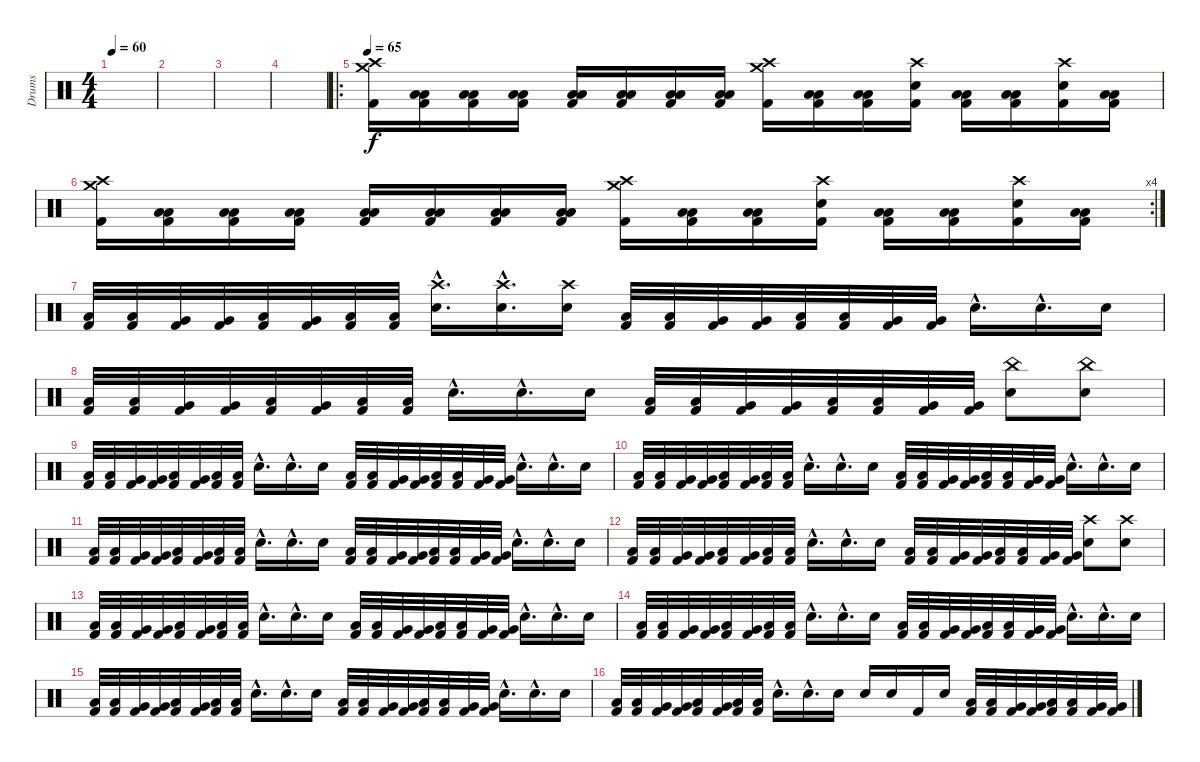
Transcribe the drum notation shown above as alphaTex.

\track ("Drums" "Drums") {instrument percussion}
\staff {score}
\articulation defaults
\ts (4 4)
\tempo 60
\clef neutral
\ks c
|
|
|
|
\ro
\tempo 65
("Crash medium (hit)" "Crash high (hit)" "Kick (hit) 2").16 ("Low Tom (hit)" "Low Floor Tom (hit)" "Kick (hit) 2").16 ("Low Tom (hit)" "Low Floor Tom (hit)" "Kick (hit) 2").16 ("Low Tom (hit)" "Low Floor Tom (hit)" "Kick (hit) 2").16 ("Low Tom (hit)" "Low Floor Tom (hit)" "Kick (hit) 2").16 ("Low Tom (hit)" "Low Floor Tom (hit)" "Kick (hit) 2").16 ("Low Tom (hit)" "Low Floor Tom (hit)" "Kick (hit) 2").16 ("Low Tom (hit)" "Low Floor Tom (hit)" "Kick (hit) 2").16 ("Crash medium (hit)" "Crash high (hit)" "Kick (hit) 2").16 ("Low Tom (hit)" "Low Floor Tom (hit)" "Kick (hit) 2").16 ("Low Tom (hit)" "Low Floor Tom (hit)" "Kick (hit) 2").16 ("Crash high (hit)" "Electric Snare (hit)" "Kick (hit) 2").16 ("Low Tom (hit)" "Low Floor Tom (hit)" "Kick (hit) 2").16 ("Low Tom (hit)" "Low Floor Tom (hit)" "Kick (hit) 2").16 ("Crash high (hit)" "Electric Snare (hit)" "Kick (hit) 2").16 ("Low Tom (hit)" "Low Floor Tom (hit)" "Kick (hit) 2").16 |
\rc 4
("Crash medium (hit)" "Crash high (hit)" "Kick (hit) 2").16 ("Low Tom (hit)" "Low Floor Tom (hit)" "Kick (hit) 2").16 ("Low Tom (hit)" "Low Floor Tom (hit)" "Kick (hit) 2").16 ("Low Tom (hit)" "Low Floor Tom (hit)" "Kick (hit) 2").16 ("Low Tom (hit)" "Low Floor Tom (hit)" "Kick (hit) 2").16 ("Low Tom (hit)" "Low Floor Tom (hit)" "Kick (hit) 2").16 ("Low Tom (hit)" "Low Floor Tom (hit)" "Kick (hit) 2").16 ("Low Tom (hit)" "Low Floor Tom (hit)" "Kick (hit) 2").16 ("Crash medium (hit)" "Crash high (hit)" "Kick (hit) 2").16 ("Low Tom (hit)" "Low Floor Tom (hit)" "Kick (hit) 2").16 ("Low Tom (hit)" "Low Floor Tom (hit)" "Kick (hit) 2").16 ("Crash high (hit)" "Electric Snare (hit)" "Kick (hit) 2").16 ("Low Tom (hit)" "Low Floor Tom (hit)" "Kick (hit) 2").16 ("Low Tom (hit)" "Low Floor Tom (hit)" "Kick (hit) 2").16 ("Crash high (hit)" "Electric Snare (hit)" "Kick (hit) 2").16 ("Low Tom (hit)" "Low Floor Tom (hit)" "Kick (hit) 2").16 |
("Low Tom (hit)" "Kick (hit) 2").32 ("Low Tom (hit)" "Kick (hit) 2").32 ("Very Low Tom (hit)" "Kick (hit) 2").32 ("Very Low Tom (hit)" "Kick (hit) 2").32 ("Low Tom (hit)" "Kick (hit) 2").32 ("Very Low Tom (hit)" "Kick (hit) 2").32 ("Low Tom (hit)" "Kick (hit) 2").32 ("Low Tom (hit)" "Kick (hit) 2").32 ("Crash high (hit)"{hac} "Electric Snare (hit)"{hac}).16{d} ("Crash high (hit)"{hac} "Electric Snare (hit)"{hac}).16{d} ("Crash high (hit)" "Electric Snare (hit)").16 ("Low Tom (hit)" "Kick (hit) 2").32 ("Low Tom (hit)" "Kick (hit) 2").32 ("Very Low Tom (hit)" "Kick (hit) 2").32 ("Very Low Tom (hit)" "Kick (hit) 2").32 ("Low Tom (hit)" "Kick (hit) 2").32 ("Low Tom (hit)" "Kick (hit) 2").32 ("Very Low Tom (hit)" "Kick (hit) 2").32 ("Very Low Tom (hit)" "Kick (hit) 2").32 "Electric Snare (hit)"{hac}.16{d} "Electric Snare (hit)"{hac}.16{d} "Electric Snare (hit)".16 |
("Low Tom (hit)" "Kick (hit) 2").32 ("Low Tom (hit)" "Kick (hit) 2").32 ("Very Low Tom (hit)" "Kick (hit) 2").32 ("Very Low Tom (hit)" "Kick (hit) 2").32 ("Low Tom (hit)" "Kick (hit) 2").32 ("Very Low Tom (hit)" "Kick (hit) 2").32 ("Low Tom (hit)" "Kick (hit) 2").32 ("Low Tom (hit)" "Kick (hit) 2").32 "Electric Snare (hit)"{hac}.16{d} "Electric Snare (hit)"{hac}.16{d} "Electric Snare (hit)".16 ("Low Tom (hit)" "Kick (hit) 2").32 ("Low Tom (hit)" "Kick (hit) 2").32 ("Very Low Tom (hit)" "Kick (hit) 2").32 ("Very Low Tom (hit)" "Kick (hit) 2").32 ("Low Tom (hit)" "Kick (hit) 2").32 ("Low Tom (hit)" "Kick (hit) 2").32 ("Very Low Tom (hit)" "Kick (hit) 2").32 ("Very Low Tom (hit)" "Kick (hit) 2").32 ("China (hit)" "Electric Snare (hit)").8 ("China (hit)" "Electric Snare (hit)").8 |
("Low Tom (hit)" "Kick (hit) 2").32 ("Low Tom (hit)" "Kick (hit) 2").32 ("Very Low Tom (hit)" "Kick (hit) 2").32 ("Very Low Tom (hit)" "Kick (hit) 2").32 ("Low Tom (hit)" "Kick (hit) 2").32 ("Very Low Tom (hit)" "Kick (hit) 2").32 ("Low Tom (hit)" "Kick (hit) 2").32 ("Low Tom (hit)" "Kick (hit) 2").32 "Electric Snare (hit)"{hac}.16{d} "Electric Snare (hit)"{hac}.16{d} "Electric Snare (hit)".16 ("Low Tom (hit)" "Kick (hit) 2").32 ("Low Tom (hit)" "Kick (hit) 2").32 ("Very Low Tom (hit)" "Kick (hit) 2").32 ("Very Low Tom (hit)" "Kick (hit) 2").32 ("Low Tom (hit)" "Kick (hit) 2").32 ("Low Tom (hit)" "Kick (hit) 2").32 ("Very Low Tom (hit)" "Kick (hit) 2").32 ("Very Low Tom (hit)" "Kick (hit) 2").32 "Electric Snare (hit)"{hac}.16{d} "Electric Snare (hit)"{hac}.16{d} "Electric Snare (hit)".16 |
("Low Tom (hit)" "Kick (hit) 2").32 ("Low Tom (hit)" "Kick (hit) 2").32 ("Very Low Tom (hit)" "Kick (hit) 2").32 ("Very Low Tom (hit)" "Kick (hit) 2").32 ("Low Tom (hit)" "Kick (hit) 2").32 ("Very Low Tom (hit)" "Kick (hit) 2").32 ("Low Tom (hit)" "Kick (hit) 2").32 ("Low Tom (hit)" "Kick (hit) 2").32 "Electric Snare (hit)"{hac}.16{d} "Electric Snare (hit)"{hac}.16{d} "Electric Snare (hit)".16 ("Low Tom (hit)" "Kick (hit) 2").32 ("Low Tom (hit)" "Kick (hit) 2").32 ("Very Low Tom (hit)" "Kick (hit) 2").32 ("Very Low Tom (hit)" "Kick (hit) 2").32 ("Low Tom (hit)" "Kick (hit) 2").32 ("Low Tom (hit)" "Kick (hit) 2").32 ("Very Low Tom (hit)" "Kick (hit) 2").32 ("Very Low Tom (hit)" "Kick (hit) 2").32 "Electric Snare (hit)"{hac}.16{d} "Electric Snare (hit)"{hac}.16{d} "Electric Snare (hit)".16 |
("Low Tom (hit)" "Kick (hit) 2").32 ("Low Tom (hit)" "Kick (hit) 2").32 ("Very Low Tom (hit)" "Kick (hit) 2").32 ("Very Low Tom (hit)" "Kick (hit) 2").32 ("Low Tom (hit)" "Kick (hit) 2").32 ("Very Low Tom (hit)" "Kick (hit) 2").32 ("Low Tom (hit)" "Kick (hit) 2").32 ("Low Tom (hit)" "Kick (hit) 2").32 "Electric Snare (hit)"{hac}.16{d} "Electric Snare (hit)"{hac}.16{d} "Electric Snare (hit)".16 ("Low Tom (hit)" "Kick (hit) 2").32 ("Low Tom (hit)" "Kick (hit) 2").32 ("Very Low Tom (hit)" "Kick (hit) 2").32 ("Very Low Tom (hit)" "Kick (hit) 2").32 ("Low Tom (hit)" "Kick (hit) 2").32 ("Low Tom (hit)" "Kick (hit) 2").32 ("Very Low Tom (hit)" "Kick (hit) 2").32 ("Very Low Tom (hit)" "Kick (hit) 2").32 "Electric Snare (hit)"{hac}.16{d} "Electric Snare (hit)"{hac}.16{d} "Electric Snare (hit)".16 |
("Low Tom (hit)" "Kick (hit) 2").32 ("Low Tom (hit)" "Kick (hit) 2").32 ("Very Low Tom (hit)" "Kick (hit) 2").32 ("Very Low Tom (hit)" "Kick (hit) 2").32 ("Low Tom (hit)" "Kick (hit) 2").32 ("Very Low Tom (hit)" "Kick (hit) 2").32 ("Low Tom (hit)" "Kick (hit) 2").32 ("Low Tom (hit)" "Kick (hit) 2").32 "Electric Snare (hit)"{hac}.16{d} "Electric Snare (hit)"{hac}.16{d} "Electric Snare (hit)".16 ("Low Tom (hit)" "Kick (hit) 2").32 ("Low Tom (hit)" "Kick (hit) 2").32 ("Very Low Tom (hit)" "Kick (hit) 2").32 ("Very Low Tom (hit)" "Kick (hit) 2").32 ("Low Tom (hit)" "Kick (hit) 2").32 ("Low Tom (hit)" "Kick (hit) 2").32 ("Very Low Tom (hit)" "Kick (hit) 2").32 ("Very Low Tom (hit)" "Kick (hit) 2").32 ("Crash high (hit)" "Electric Snare (hit)").8 ("Crash high (hit)" "Electric Snare (hit)").8 |
("Low Tom (hit)" "Kick (hit) 2").32 ("Low Tom (hit)" "Kick (hit) 2").32 ("Very Low Tom (hit)" "Kick (hit) 2").32 ("Very Low Tom (hit)" "Kick (hit) 2").32 ("Low Tom (hit)" "Kick (hit) 2").32 ("Very Low Tom (hit)" "Kick (hit) 2").32 ("Low Tom (hit)" "Kick (hit) 2").32 ("Low Tom (hit)" "Kick (hit) 2").32 "Electric Snare (hit)"{hac}.16{d} "Electric Snare (hit)"{hac}.16{d} "Electric Snare (hit)".16 ("Low Tom (hit)" "Kick (hit) 2").32 ("Low Tom (hit)" "Kick (hit) 2").32 ("Very Low Tom (hit)" "Kick (hit) 2").32 ("Very Low Tom (hit)" "Kick (hit) 2").32 ("Low Tom (hit)" "Kick (hit) 2").32 ("Low Tom (hit)" "Kick (hit) 2").32 ("Very Low Tom (hit)" "Kick (hit) 2").32 ("Very Low Tom (hit)" "Kick (hit) 2").32 "Electric Snare (hit)"{hac}.16{d} "Electric Snare (hit)"{hac}.16{d} "Electric Snare (hit)".16 |
("Low Tom (hit)" "Kick (hit) 2").32 ("Low Tom (hit)" "Kick (hit) 2").32 ("Very Low Tom (hit)" "Kick (hit) 2").32 ("Very Low Tom (hit)" "Kick (hit) 2").32 ("Low Tom (hit)" "Kick (hit) 2").32 ("Very Low Tom (hit)" "Kick (hit) 2").32 ("Low Tom (hit)" "Kick (hit) 2").32 ("Low Tom (hit)" "Kick (hit) 2").32 "Electric Snare (hit)"{hac}.16{d} "Electric Snare (hit)"{hac}.16{d} "Electric Snare (hit)".16 ("Low Tom (hit)" "Kick (hit) 2").32 ("Low Tom (hit)" "Kick (hit) 2").32 ("Very Low Tom (hit)" "Kick (hit) 2").32 ("Very Low Tom (hit)" "Kick (hit) 2").32 ("Low Tom (hit)" "Kick (hit) 2").32 ("Low Tom (hit)" "Kick (hit) 2").32 ("Very Low Tom (hit)" "Kick (hit) 2").32 ("Very Low Tom (hit)" "Kick (hit) 2").32 "Electric Snare (hit)"{hac}.16{d} "Electric Snare (hit)"{hac}.16{d} "Electric Snare (hit)".16 |
("Low Tom (hit)" "Kick (hit) 2").32 ("Low Tom (hit)" "Kick (hit) 2").32 ("Very Low Tom (hit)" "Kick (hit) 2").32 ("Very Low Tom (hit)" "Kick (hit) 2").32 ("Low Tom (hit)" "Kick (hit) 2").32 ("Very Low Tom (hit)" "Kick (hit) 2").32 ("Low Tom (hit)" "Kick (hit) 2").32 ("Low Tom (hit)" "Kick (hit) 2").32 "Electric Snare (hit)"{hac}.16{d} "Electric Snare (hit)"{hac}.16{d} "Electric Snare (hit)".16 ("Low Tom (hit)" "Kick (hit) 2").32 ("Low Tom (hit)" "Kick (hit) 2").32 ("Very Low Tom (hit)" "Kick (hit) 2").32 ("Very Low Tom (hit)" "Kick (hit) 2").32 ("Low Tom (hit)" "Kick (hit) 2").32 ("Low Tom (hit)" "Kick (hit) 2").32 ("Very Low Tom (hit)" "Kick (hit) 2").32 ("Very Low Tom (hit)" "Kick (hit) 2").32 "Electric Snare (hit)"{hac}.16{d} "Electric Snare (hit)"{hac}.16{d} "Electric Snare (hit)".16 |
("Low Tom (hit)" "Kick (hit) 2").32 ("Low Tom (hit)" "Kick (hit) 2").32 ("Very Low Tom (hit)" "Kick (hit) 2").32 ("Very Low Tom (hit)" "Kick (hit) 2").32 ("Low Tom (hit)" "Kick (hit) 2").32 ("Very Low Tom (hit)" "Kick (hit) 2").32 ("Low Tom (hit)" "Kick (hit) 2").32 ("Low Tom (hit)" "Kick (hit) 2").32 "Electric Snare (hit)"{hac}.16{d} "Electric Snare (hit)"{hac}.16{d} "Electric Snare (hit)".16 "Electric Snare (hit)".16 "Electric Snare (hit)".16 "Kick (hit) 2".16 "Electric Snare (hit)".16 ("Low Tom (hit)" "Kick (hit) 2").32 ("Low Tom (hit)" "Kick (hit) 2").32 ("Very Low Tom (hit)" "Kick (hit) 2").32 ("Very Low Tom (hit)" "Kick (hit) 2").32 ("Low Tom (hit)" "Kick (hit) 2").32 ("Low Tom (hit)" "Kick (hit) 2").32 ("Very Low Tom (hit)" "Kick (hit) 2").32 ("Very Low Tom (hit)" "Kick (hit) 2").32
